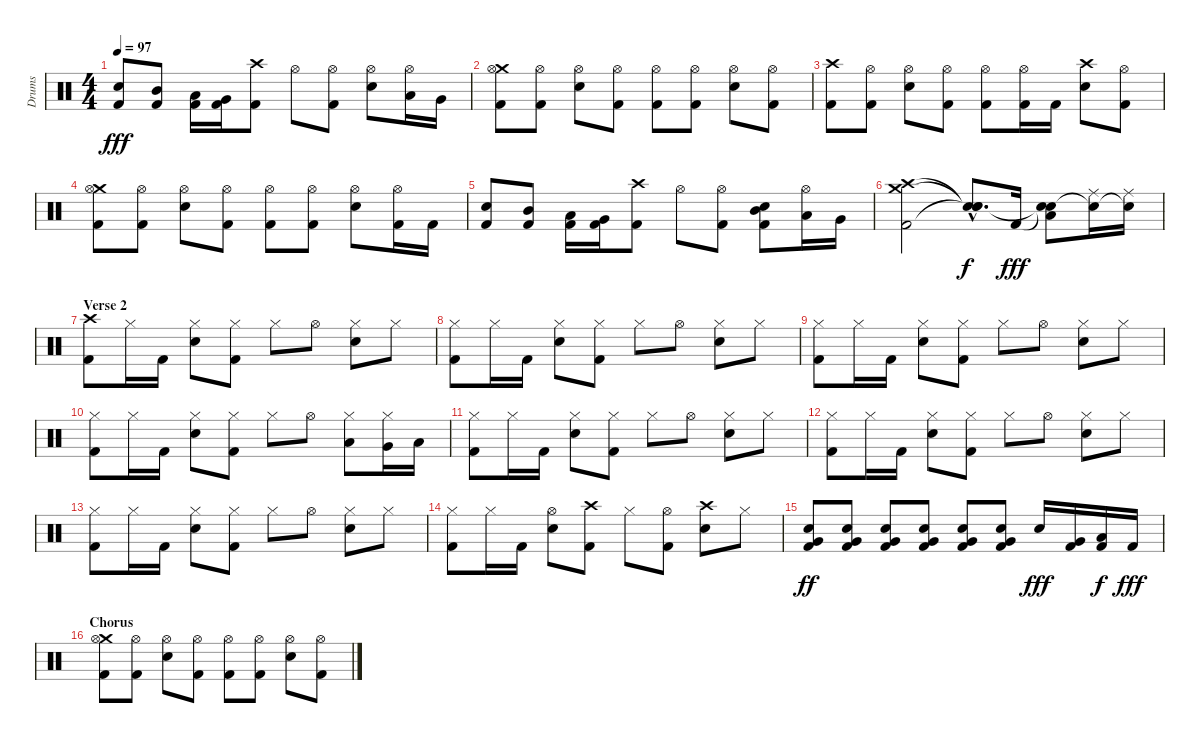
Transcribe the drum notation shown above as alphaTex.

\track ("Drums" "Drums") {instrument percussion}
\staff {score}
\articulation defaults
\ts (4 4)
\tempo 97
\clef neutral
\ks c
("Electric Snare (hit)" "Kick (hit) 2").8{dy fff} ("Mid Tom (hit)" "Kick (hit) 2").8 ("Low Tom (hit)" "Kick (hit) 2").16 ("Very Low Tom (hit)" "Kick (hit) 2").16 ("Crash high (hit)" "Kick (hit) 2").8 "Hi-Hat (open)".8 ("Hi-Hat (open)" "Kick (hit) 2").8 ("Hi-Hat (open)" "Electric Snare (hit)").8 ("Hi-Hat (open)" "Low Tom (hit)").16 "Very Low Tom (hit)".16 |
("Crash medium (hit)" "Hi-Hat (open)" "Kick (hit) 2").8 ("Hi-Hat (open)" "Kick (hit) 2").8 ("Hi-Hat (open)" "Electric Snare (hit)").8 ("Hi-Hat (open)" "Kick (hit) 2").8 ("Hi-Hat (open)" "Kick (hit) 2").8 ("Hi-Hat (open)" "Kick (hit) 2").8 ("Hi-Hat (open)" "Electric Snare (hit)").8 ("Hi-Hat (open)" "Kick (hit) 2").8 |
("Crash high (hit)" "Kick (hit) 2").8 ("Hi-Hat (open)" "Kick (hit) 2").8 ("Hi-Hat (open)" "Electric Snare (hit)").8 ("Hi-Hat (open)" "Kick (hit) 2").8 ("Hi-Hat (open)" "Kick (hit) 2").8 ("Hi-Hat (open)" "Kick (hit) 2").16 "Kick (hit) 2".16 ("Crash high (hit)" "Electric Snare (hit)").8 ("Hi-Hat (open)" "Kick (hit) 2").8 |
("Crash medium (hit)" "Hi-Hat (open)" "Kick (hit) 2").8 ("Hi-Hat (open)" "Kick (hit) 2").8 ("Hi-Hat (open)" "Electric Snare (hit)").8 ("Hi-Hat (open)" "Kick (hit) 2").8 ("Hi-Hat (open)" "Kick (hit) 2").8 ("Hi-Hat (open)" "Kick (hit) 2").8 ("Hi-Hat (open)" "Electric Snare (hit)").8 ("Hi-Hat (open)" "Kick (hit) 2").16 "Kick (hit) 2".16 |
("Electric Snare (hit)" "Kick (hit) 2").8 ("Mid Tom (hit)" "Kick (hit) 2").8 ("Low Tom (hit)" "Kick (hit) 2").16 ("Very Low Tom (hit)" "Kick (hit) 2").16 ("Crash high (hit)" "Kick (hit) 2").8 "Hi-Hat (open)".8 ("Hi-Hat (open)" "Kick (hit) 2").8 ("Electric Snare (hit)" "Mid Tom (hit)" "Kick (hit) 2").8 ("Hi-Hat (open)" "Low Tom (hit)").16 "Very Low Tom (hit)".16 |
("Crash medium (hit)" "Crash high (hit)" "Kick (hit) 2").2 ("Snare (hit)"{hac t} "Snare (hit)"{hac t} "Snare (hit)"{hac t}).8{d dy f} "Kick (hit) 2".16{dy fff} ("Snare (hit)"{t} "Snare (hit)"{t} "Low Tom (hit)").8 ("Snare (hit)"{t} "Ride (middle)").16 ("Snare (hit)"{t} "Ride (middle)").16 |
\section ("" "Verse 2")
("Crash high (hit)" "Kick (hit) 2").8 "Hi-Hat (closed)".16 "Kick (hit) 2".16 ("Hi-Hat (closed)" "Electric Snare (hit)").8 ("Hi-Hat (closed)" "Kick (hit) 2").8 "Hi-Hat (closed)".8 "Hi-Hat (open)".8 ("Hi-Hat (closed)" "Electric Snare (hit)").8 "Hi-Hat (closed)".8 |
("Hi-Hat (closed)" "Kick (hit) 2").8 "Hi-Hat (closed)".16 "Kick (hit) 2".16 ("Hi-Hat (closed)" "Electric Snare (hit)").8 ("Hi-Hat (closed)" "Kick (hit) 2").8 "Hi-Hat (closed)".8 "Hi-Hat (open)".8 ("Hi-Hat (closed)" "Electric Snare (hit)").8 "Hi-Hat (closed)".8 |
("Hi-Hat (closed)" "Kick (hit) 2").8 "Hi-Hat (closed)".16 "Kick (hit) 2".16 ("Hi-Hat (closed)" "Electric Snare (hit)").8 ("Hi-Hat (closed)" "Kick (hit) 2").8 "Hi-Hat (closed)".8 "Hi-Hat (open)".8 ("Hi-Hat (closed)" "Electric Snare (hit)").8 "Hi-Hat (closed)".8 |
("Hi-Hat (closed)" "Kick (hit) 2").8 "Hi-Hat (closed)".16 "Kick (hit) 2".16 ("Hi-Hat (closed)" "Electric Snare (hit)").8 ("Hi-Hat (closed)" "Kick (hit) 2").8 "Hi-Hat (closed)".8 "Hi-Hat (open)".8 ("Hi-Hat (closed)" "Low Tom (hit)").8 ("Hi-Hat (closed)" "Very Low Tom (hit)").16 "Low Floor Tom (hit)".16 |
("Hi-Hat (closed)" "Kick (hit) 2").8 "Hi-Hat (closed)".16 "Kick (hit) 2".16 ("Hi-Hat (closed)" "Electric Snare (hit)").8 ("Hi-Hat (closed)" "Kick (hit) 2").8 "Hi-Hat (closed)".8 "Hi-Hat (open)".8 ("Hi-Hat (closed)" "Electric Snare (hit)").8 "Hi-Hat (closed)".8 |
("Hi-Hat (closed)" "Kick (hit) 2").8 "Hi-Hat (closed)".16 "Kick (hit) 2".16 ("Hi-Hat (closed)" "Electric Snare (hit)").8 ("Hi-Hat (closed)" "Kick (hit) 2").8 "Hi-Hat (closed)".8 "Hi-Hat (open)".8 ("Hi-Hat (closed)" "Electric Snare (hit)").8 "Hi-Hat (closed)".8 |
("Hi-Hat (closed)" "Kick (hit) 2").8 "Hi-Hat (closed)".16 "Kick (hit) 2".16 ("Hi-Hat (closed)" "Electric Snare (hit)").8 ("Hi-Hat (closed)" "Kick (hit) 2").8 "Hi-Hat (closed)".8 "Hi-Hat (open)".8 ("Hi-Hat (closed)" "Electric Snare (hit)").8 "Hi-Hat (closed)".8 |
("Hi-Hat (closed)" "Kick (hit) 2").8 "Hi-Hat (closed)".16 "Kick (hit) 2".16 ("Hi-Hat (open)" "Electric Snare (hit)").8 ("Crash high (hit)" "Kick (hit) 2").8 "Hi-Hat (closed)".8 ("Hi-Hat (open)" "Kick (hit) 2").8 ("Crash high (hit)" "Electric Snare (hit)").8 "Hi-Hat (closed)".8 |
("Electric Snare (hit)" "Very Low Tom (hit)" "Kick (hit) 2").8{dy ff} ("Electric Snare (hit)" "Very Low Tom (hit)" "Kick (hit) 2").8 ("Electric Snare (hit)" "Very Low Tom (hit)" "Kick (hit) 2").8 ("Electric Snare (hit)" "Very Low Tom (hit)" "Kick (hit) 2").8 ("Electric Snare (hit)" "Very Low Tom (hit)" "Kick (hit) 2").8 ("Electric Snare (hit)" "Very Low Tom (hit)" "Kick (hit) 2").8 "Electric Snare (hit)".16{dy fff} ("Very Low Tom (hit)" "Kick (hit) 2").16 ("Low Floor Tom (hit)" "Kick (hit) 2").16{dy f} "Kick (hit) 2".16{dy fff} |
\section ("" "Chorus")
("Crash medium (hit)" "Hi-Hat (open)" "Kick (hit) 2").8 ("Hi-Hat (open)" "Kick (hit) 2").8 ("Hi-Hat (open)" "Electric Snare (hit)").8 ("Hi-Hat (open)" "Kick (hit) 2").8 ("Hi-Hat (open)" "Kick (hit) 2").8 ("Hi-Hat (open)" "Kick (hit) 2").8 ("Hi-Hat (open)" "Electric Snare (hit)").8 ("Hi-Hat (open)" "Kick (hit) 2").8
